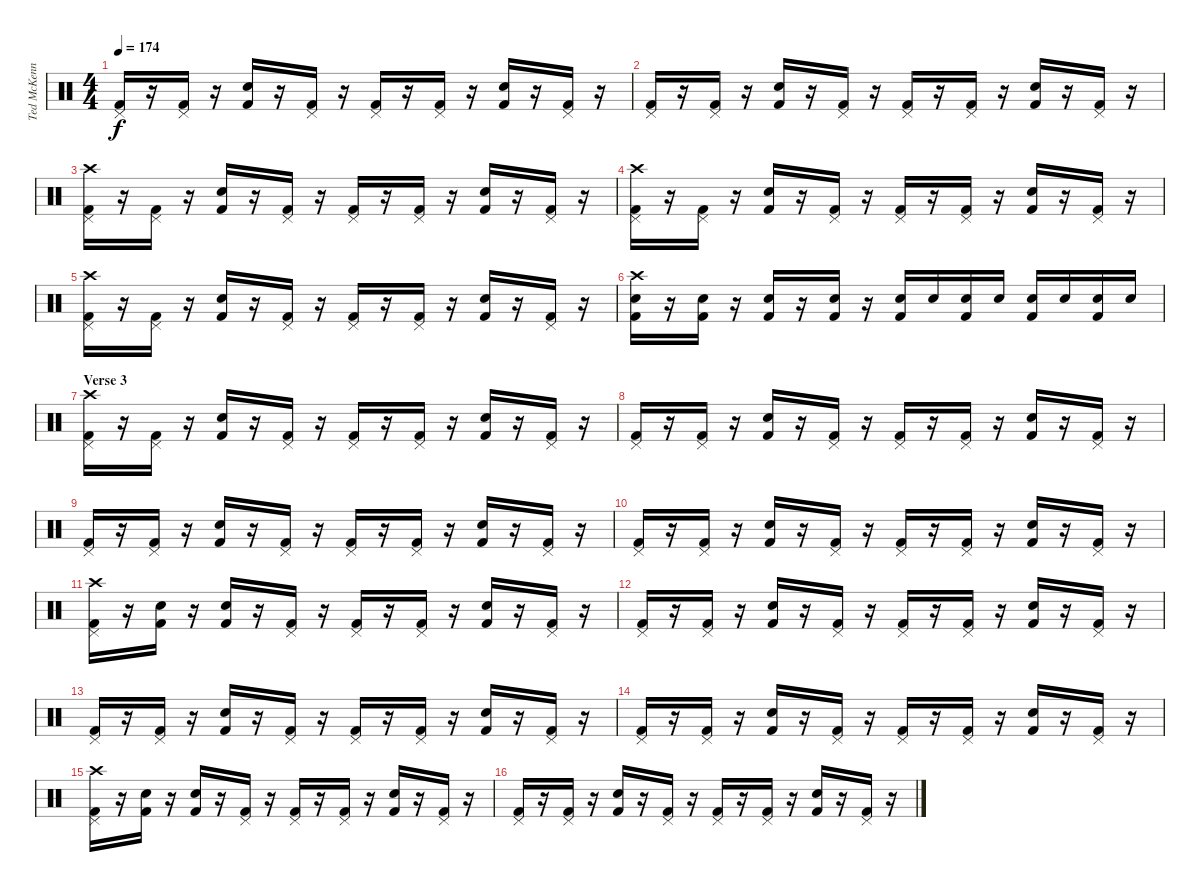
\track ("Ted McKenna" "Ted McKenn") {instrument percussion}
\staff {score}
\articulation defaults
\ts (4 4)
\tempo 174
\clef neutral
\ks c
("Pedal Hi-Hat (hit)" "Kick (hit) 2").16{dy f} r.16 ("Pedal Hi-Hat (hit)" "Kick (hit) 2").16 r.16 ("Snare (hit) 2" "Kick (hit) 2").16 r.16 ("Pedal Hi-Hat (hit)" "Kick (hit) 2").16 r.16 ("Pedal Hi-Hat (hit)" "Kick (hit) 2").16 r.16 ("Pedal Hi-Hat (hit)" "Kick (hit) 2").16 r.16 ("Snare (hit) 2" "Kick (hit) 2").16 r.16 ("Pedal Hi-Hat (hit)" "Kick (hit) 2").16 r.16 |
("Pedal Hi-Hat (hit)" "Kick (hit) 2").16 r.16 ("Pedal Hi-Hat (hit)" "Kick (hit) 2").16 r.16 ("Snare (hit) 2" "Kick (hit) 2").16 r.16 ("Pedal Hi-Hat (hit)" "Kick (hit) 2").16 r.16 ("Pedal Hi-Hat (hit)" "Kick (hit) 2").16 r.16 ("Pedal Hi-Hat (hit)" "Kick (hit) 2").16 r.16 ("Snare (hit) 2" "Kick (hit) 2").16 r.16 ("Pedal Hi-Hat (hit)" "Kick (hit) 2").16 r.16 |
("Crash high (hit)" "Pedal Hi-Hat (hit)" "Kick (hit) 2").16 r.16 ("Pedal Hi-Hat (hit)" "Kick (hit) 2").16 r.16 ("Snare (hit) 2" "Kick (hit) 2").16 r.16 ("Pedal Hi-Hat (hit)" "Kick (hit) 2").16 r.16 ("Pedal Hi-Hat (hit)" "Kick (hit) 2").16 r.16 ("Pedal Hi-Hat (hit)" "Kick (hit) 2").16 r.16 ("Snare (hit) 2" "Kick (hit) 2").16 r.16 ("Pedal Hi-Hat (hit)" "Kick (hit) 2").16 r.16 |
("Crash high (hit)" "Pedal Hi-Hat (hit)" "Kick (hit) 2").16 r.16 ("Pedal Hi-Hat (hit)" "Kick (hit) 2").16 r.16 ("Snare (hit) 2" "Kick (hit) 2").16 r.16 ("Pedal Hi-Hat (hit)" "Kick (hit) 2").16 r.16 ("Pedal Hi-Hat (hit)" "Kick (hit) 2").16 r.16 ("Pedal Hi-Hat (hit)" "Kick (hit) 2").16 r.16 ("Snare (hit) 2" "Kick (hit) 2").16 r.16 ("Pedal Hi-Hat (hit)" "Kick (hit) 2").16 r.16 |
("Crash high (hit)" "Pedal Hi-Hat (hit)" "Kick (hit) 2").16 r.16 ("Pedal Hi-Hat (hit)" "Kick (hit) 2").16 r.16 ("Snare (hit) 2" "Kick (hit) 2").16 r.16 ("Pedal Hi-Hat (hit)" "Kick (hit) 2").16 r.16 ("Pedal Hi-Hat (hit)" "Kick (hit) 2").16 r.16 ("Pedal Hi-Hat (hit)" "Kick (hit) 2").16 r.16 ("Snare (hit) 2" "Kick (hit) 2").16 r.16 ("Pedal Hi-Hat (hit)" "Kick (hit) 2").16 r.16 |
("Crash high (hit)" "Snare (hit) 2" "Kick (hit) 2").16 r.16 ("Snare (hit) 2" "Kick (hit) 2").16 r.16 ("Snare (hit) 2" "Kick (hit) 2").16 r.16 ("Snare (hit) 2" "Kick (hit) 2").16 r.16 ("Snare (hit) 2" "Kick (hit) 2").16 "Snare (hit) 2".16 ("Snare (hit) 2" "Kick (hit) 2").16 "Snare (hit) 2".16 ("Electric Snare (hit)" "Kick (hit) 2").16 "Electric Snare (hit)".16 ("Electric Snare (hit)" "Kick (hit) 2").16 "Electric Snare (hit)".16 |
\section ("" "Verse 3")
("Crash high (hit)" "Pedal Hi-Hat (hit)" "Kick (hit) 2").16 r.16 ("Pedal Hi-Hat (hit)" "Kick (hit) 2").16 r.16 ("Snare (hit) 2" "Kick (hit) 2").16 r.16 ("Pedal Hi-Hat (hit)" "Kick (hit) 2").16 r.16 ("Pedal Hi-Hat (hit)" "Kick (hit) 2").16 r.16 ("Pedal Hi-Hat (hit)" "Kick (hit) 2").16 r.16 ("Snare (hit) 2" "Kick (hit) 2").16 r.16 ("Pedal Hi-Hat (hit)" "Kick (hit) 2").16 r.16 |
("Pedal Hi-Hat (hit)" "Kick (hit) 2").16 r.16 ("Pedal Hi-Hat (hit)" "Kick (hit) 2").16 r.16 ("Snare (hit) 2" "Kick (hit) 2").16 r.16 ("Pedal Hi-Hat (hit)" "Kick (hit) 2").16 r.16 ("Pedal Hi-Hat (hit)" "Kick (hit) 2").16 r.16 ("Pedal Hi-Hat (hit)" "Kick (hit) 2").16 r.16 ("Snare (hit) 2" "Kick (hit) 2").16 r.16 ("Pedal Hi-Hat (hit)" "Kick (hit) 2").16 r.16 |
("Pedal Hi-Hat (hit)" "Kick (hit) 2").16 r.16 ("Pedal Hi-Hat (hit)" "Kick (hit) 2").16 r.16 ("Snare (hit) 2" "Kick (hit) 2").16 r.16 ("Pedal Hi-Hat (hit)" "Kick (hit) 2").16 r.16 ("Pedal Hi-Hat (hit)" "Kick (hit) 2").16 r.16 ("Pedal Hi-Hat (hit)" "Kick (hit) 2").16 r.16 ("Snare (hit) 2" "Kick (hit) 2").16 r.16 ("Pedal Hi-Hat (hit)" "Kick (hit) 2").16 r.16 |
("Pedal Hi-Hat (hit)" "Kick (hit) 2").16 r.16 ("Pedal Hi-Hat (hit)" "Kick (hit) 2").16 r.16 ("Snare (hit) 2" "Kick (hit) 2").16 r.16 ("Pedal Hi-Hat (hit)" "Kick (hit) 2").16 r.16 ("Pedal Hi-Hat (hit)" "Kick (hit) 2").16 r.16 ("Pedal Hi-Hat (hit)" "Kick (hit) 2").16 r.16 ("Snare (hit) 2" "Kick (hit) 2").16 r.16 ("Pedal Hi-Hat (hit)" "Kick (hit) 2").16 r.16 |
("Crash high (hit)" "Pedal Hi-Hat (hit)" "Kick (hit) 2").16 r.16 ("Snare (hit) 2" "Kick (hit) 2").16 r.16 ("Snare (hit) 2" "Kick (hit) 2").16 r.16 ("Pedal Hi-Hat (hit)" "Kick (hit) 2").16 r.16 ("Pedal Hi-Hat (hit)" "Kick (hit) 2").16 r.16 ("Pedal Hi-Hat (hit)" "Kick (hit) 2").16 r.16 ("Snare (hit) 2" "Kick (hit) 2").16 r.16 ("Pedal Hi-Hat (hit)" "Kick (hit) 2").16 r.16 |
("Pedal Hi-Hat (hit)" "Kick (hit) 2").16 r.16 ("Pedal Hi-Hat (hit)" "Kick (hit) 2").16 r.16 ("Snare (hit) 2" "Kick (hit) 2").16 r.16 ("Pedal Hi-Hat (hit)" "Kick (hit) 2").16 r.16 ("Pedal Hi-Hat (hit)" "Kick (hit) 2").16 r.16 ("Pedal Hi-Hat (hit)" "Kick (hit) 2").16 r.16 ("Snare (hit) 2" "Kick (hit) 2").16 r.16 ("Pedal Hi-Hat (hit)" "Kick (hit) 2").16 r.16 |
("Pedal Hi-Hat (hit)" "Kick (hit) 2").16 r.16 ("Pedal Hi-Hat (hit)" "Kick (hit) 2").16 r.16 ("Snare (hit) 2" "Kick (hit) 2").16 r.16 ("Pedal Hi-Hat (hit)" "Kick (hit) 2").16 r.16 ("Pedal Hi-Hat (hit)" "Kick (hit) 2").16 r.16 ("Pedal Hi-Hat (hit)" "Kick (hit) 2").16 r.16 ("Snare (hit) 2" "Kick (hit) 2").16 r.16 ("Pedal Hi-Hat (hit)" "Kick (hit) 2").16 r.16 |
("Pedal Hi-Hat (hit)" "Kick (hit) 2").16 r.16 ("Pedal Hi-Hat (hit)" "Kick (hit) 2").16 r.16 ("Snare (hit) 2" "Kick (hit) 2").16 r.16 ("Pedal Hi-Hat (hit)" "Kick (hit) 2").16 r.16 ("Pedal Hi-Hat (hit)" "Kick (hit) 2").16 r.16 ("Pedal Hi-Hat (hit)" "Kick (hit) 2").16 r.16 ("Snare (hit) 2" "Kick (hit) 2").16 r.16 ("Pedal Hi-Hat (hit)" "Kick (hit) 2").16 r.16 |
("Crash high (hit)" "Pedal Hi-Hat (hit)" "Kick (hit) 2").16 r.16 ("Snare (hit) 2" "Kick (hit) 2").16 r.16 ("Snare (hit) 2" "Kick (hit) 2").16 r.16 ("Pedal Hi-Hat (hit)" "Kick (hit) 2").16 r.16 ("Pedal Hi-Hat (hit)" "Kick (hit) 2").16 r.16 ("Pedal Hi-Hat (hit)" "Kick (hit) 2").16 r.16 ("Snare (hit) 2" "Kick (hit) 2").16 r.16 ("Pedal Hi-Hat (hit)" "Kick (hit) 2").16 r.16 |
("Pedal Hi-Hat (hit)" "Kick (hit) 2").16 r.16 ("Pedal Hi-Hat (hit)" "Kick (hit) 2").16 r.16 ("Snare (hit) 2" "Kick (hit) 2").16 r.16 ("Pedal Hi-Hat (hit)" "Kick (hit) 2").16 r.16 ("Pedal Hi-Hat (hit)" "Kick (hit) 2").16 r.16 ("Pedal Hi-Hat (hit)" "Kick (hit) 2").16 r.16 ("Snare (hit) 2" "Kick (hit) 2").16 r.16 ("Pedal Hi-Hat (hit)" "Kick (hit) 2").16 r.16
